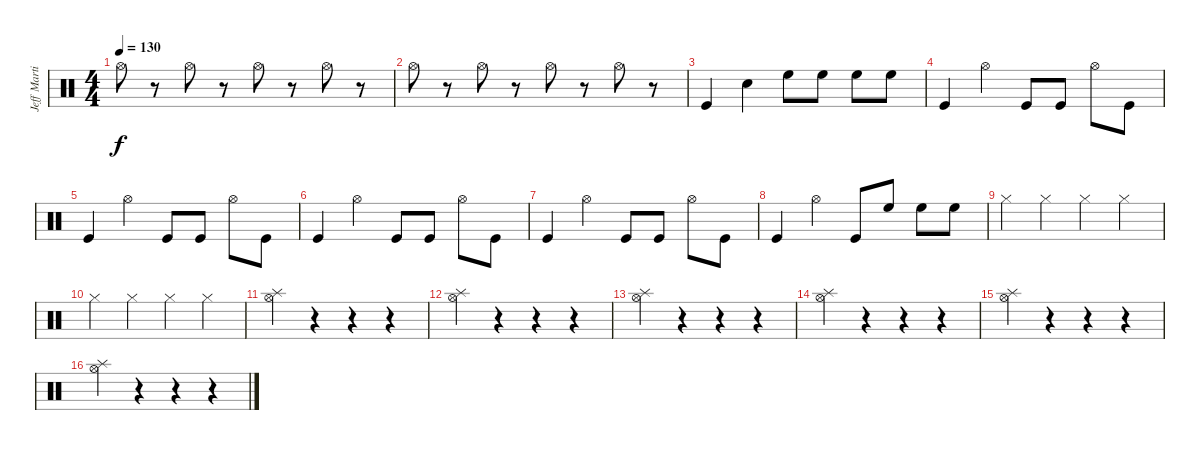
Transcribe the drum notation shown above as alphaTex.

\track ("Jeff Martin" "Jeff Marti") {instrument percussion}
\staff {score}
\articulation defaults
\ts (4 4)
\tempo 130
\clef neutral
\ks c "Hi-Hat (open)".8{dy f}
r.8 "Hi-Hat (open)".8 r.8 "Hi-Hat (open)".8 r.8 "Hi-Hat (open)".8 r.8 |
"Hi-Hat (open)".8 r.8 "Hi-Hat (open)".8 r.8 "Hi-Hat (open)".8 r.8 "Hi-Hat (open)".8 r.8 |
"Kick (hit)".4 "Snare (hit) 2".4 "High Floor Tom (hit)".8 "High Floor Tom (hit)".8 "High Floor Tom (hit)".8 "High Floor Tom (hit)".8 |
"Kick (hit)".4 "Hi-Hat (open)".4 "Kick (hit)".8 "Kick (hit)".8 "Hi-Hat (open)".8 "Kick (hit)".8 |
"Kick (hit)".4 "Hi-Hat (open)".4 "Kick (hit)".8 "Kick (hit)".8 "Hi-Hat (open)".8 "Kick (hit)".8 |
"Kick (hit)".4 "Hi-Hat (open)".4 "Kick (hit)".8 "Kick (hit)".8 "Hi-Hat (open)".8 "Kick (hit)".8 |
"Kick (hit)".4 "Hi-Hat (open)".4 "Kick (hit)".8 "Kick (hit)".8 "Hi-Hat (open)".8 "Kick (hit)".8 |
"Kick (hit)".4 "Hi-Hat (open)".4 "Kick (hit)".8 "High Floor Tom (hit)".8 "High Floor Tom (hit)".8 "High Floor Tom (hit)".8 |
"Hi-Hat (closed)".4 "Hi-Hat (closed)".4 "Hi-Hat (closed)".4 "Hi-Hat (closed)".4 |
"Hi-Hat (closed)".4 "Hi-Hat (closed)".4 "Hi-Hat (closed)".4 "Hi-Hat (closed)".4 |
("Hi-Hat (open)" "Splash (hit)").4 r.4 r.4 r.4 |
("Hi-Hat (open)" "Splash (hit)").4 r.4 r.4 r.4 |
("Hi-Hat (open)" "Splash (hit)").4 r.4 r.4 r.4 |
("Hi-Hat (open)" "Splash (hit)").4 r.4 r.4 r.4 |
("Hi-Hat (open)" "Splash (hit)").4 r.4 r.4 r.4 |
("Hi-Hat (open)" "Splash (hit)").4 r.4 r.4 r.4
